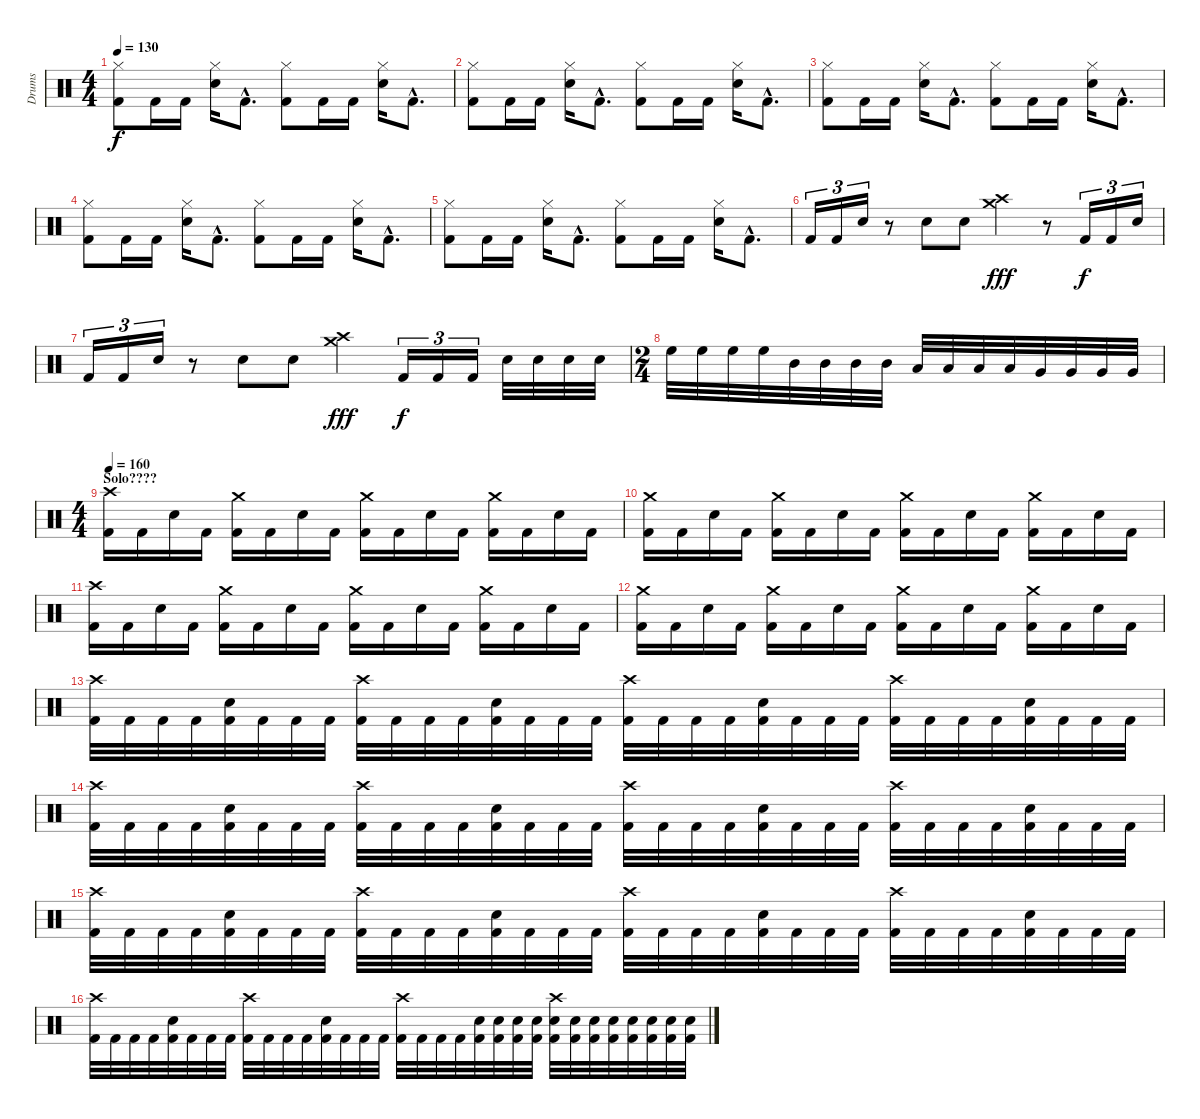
\track ("Drums" "Drums") {instrument percussion}
\staff {score}
\articulation defaults
\ts (4 4)
\tempo 130
\clef neutral
\ks c
("Hi-Hat (closed)" "Kick (hit) 2").8{dy f} "Kick (hit) 2".16 "Kick (hit) 2".16 ("Hi-Hat (closed)" "Electric Snare (hit)").16 "Kick (hit) 2"{hac}.8{d} ("Hi-Hat (closed)" "Kick (hit) 2").8 "Kick (hit) 2".16 "Kick (hit) 2".16 ("Hi-Hat (closed)" "Electric Snare (hit)").16 "Kick (hit) 2"{hac}.8{d} |
("Hi-Hat (closed)" "Kick (hit) 2").8 "Kick (hit) 2".16 "Kick (hit) 2".16 ("Hi-Hat (closed)" "Electric Snare (hit)").16 "Kick (hit) 2"{hac}.8{d} ("Hi-Hat (closed)" "Kick (hit) 2").8 "Kick (hit) 2".16 "Kick (hit) 2".16 ("Hi-Hat (closed)" "Electric Snare (hit)").16 "Kick (hit) 2"{hac}.8{d} |
("Hi-Hat (closed)" "Kick (hit) 2").8 "Kick (hit) 2".16 "Kick (hit) 2".16 ("Hi-Hat (closed)" "Electric Snare (hit)").16 "Kick (hit) 2"{hac}.8{d} ("Hi-Hat (closed)" "Kick (hit) 2").8 "Kick (hit) 2".16 "Kick (hit) 2".16 ("Hi-Hat (closed)" "Electric Snare (hit)").16 "Kick (hit) 2"{hac}.8{d} |
("Hi-Hat (closed)" "Kick (hit) 2").8 "Kick (hit) 2".16 "Kick (hit) 2".16 ("Hi-Hat (closed)" "Electric Snare (hit)").16 "Kick (hit) 2"{hac}.8{d} ("Hi-Hat (closed)" "Kick (hit) 2").8 "Kick (hit) 2".16 "Kick (hit) 2".16 ("Hi-Hat (closed)" "Electric Snare (hit)").16 "Kick (hit) 2"{hac}.8{d} |
("Hi-Hat (closed)" "Kick (hit) 2").8 "Kick (hit) 2".16 "Kick (hit) 2".16 ("Hi-Hat (closed)" "Electric Snare (hit)").16 "Kick (hit) 2"{hac}.8{d} ("Hi-Hat (closed)" "Kick (hit) 2").8 "Kick (hit) 2".16 "Kick (hit) 2".16 ("Hi-Hat (closed)" "Electric Snare (hit)").16 "Kick (hit) 2"{hac}.8{d} |
"Kick (hit) 2".16{tu (3 2)} "Kick (hit) 2".16{tu (3 2)} "Electric Snare (hit)".16{tu (3 2)} r.8 "Electric Snare (hit)".8 "Electric Snare (hit)".8 ("Crash medium (hit)" "Crash high (hit)").4{dy fff} r.8 "Kick (hit) 2".16{tu (3 2) dy f} "Kick (hit) 2".16{tu (3 2)} "Electric Snare (hit)".16{tu (3 2)} |
"Kick (hit) 2".16{tu (3 2)} "Kick (hit) 2".16{tu (3 2)} "Electric Snare (hit)".16{tu (3 2)} r.8 "Electric Snare (hit)".8 "Electric Snare (hit)".8 ("Crash medium (hit)" "Crash high (hit)").4{dy fff} "Kick (hit) 2".16{tu (3 2) dy f} "Kick (hit) 2".16{tu (3 2)} "Kick (hit) 2".16{tu (3 2)} "Electric Snare (hit)".32 "Electric Snare (hit)".32 "Electric Snare (hit)".32 "Electric Snare (hit)".32 |
\ts (2 4)
"High Floor Tom (hit)".32 "High Floor Tom (hit)".32 "High Floor Tom (hit)".32 "High Floor Tom (hit)".32 "Mid Tom (hit)".32 "Mid Tom (hit)".32 "Mid Tom (hit)".32 "Mid Tom (hit)".32 "Low Tom (hit)".32 "Low Tom (hit)".32 "Low Tom (hit)".32 "Low Tom (hit)".32 "Very Low Tom (hit)".32 "Very Low Tom (hit)".32 "Very Low Tom (hit)".32 "Very Low Tom (hit)".32 |
\ts (4 4)
\section ("" "Solo????")
\tempo 160
("Crash high (hit)" "Kick (hit) 2").16 "Kick (hit) 2".16 "Electric Snare (hit)".16 "Kick (hit) 2".16 ("Crash medium (hit)" "Kick (hit) 2").16 "Kick (hit) 2".16 "Electric Snare (hit)".16 "Kick (hit) 2".16 ("Crash medium (hit)" "Kick (hit) 2").16 "Kick (hit) 2".16 "Electric Snare (hit)".16 "Kick (hit) 2".16 ("Crash medium (hit)" "Kick (hit) 2").16 "Kick (hit) 2".16 "Electric Snare (hit)".16 "Kick (hit) 2".16 |
("Crash medium (hit)" "Kick (hit) 2").16 "Kick (hit) 2".16 "Electric Snare (hit)".16 "Kick (hit) 2".16 ("Crash medium (hit)" "Kick (hit) 2").16 "Kick (hit) 2".16 "Electric Snare (hit)".16 "Kick (hit) 2".16 ("Crash medium (hit)" "Kick (hit) 2").16 "Kick (hit) 2".16 "Electric Snare (hit)".16 "Kick (hit) 2".16 ("Crash medium (hit)" "Kick (hit) 2").16 "Kick (hit) 2".16 "Electric Snare (hit)".16 "Kick (hit) 2".16 |
("Crash high (hit)" "Kick (hit) 2").16 "Kick (hit) 2".16 "Electric Snare (hit)".16 "Kick (hit) 2".16 ("Crash medium (hit)" "Kick (hit) 2").16 "Kick (hit) 2".16 "Electric Snare (hit)".16 "Kick (hit) 2".16 ("Crash medium (hit)" "Kick (hit) 2").16 "Kick (hit) 2".16 "Electric Snare (hit)".16 "Kick (hit) 2".16 ("Crash medium (hit)" "Kick (hit) 2").16 "Kick (hit) 2".16 "Electric Snare (hit)".16 "Kick (hit) 2".16 |
("Crash medium (hit)" "Kick (hit) 2").16 "Kick (hit) 2".16 "Electric Snare (hit)".16 "Kick (hit) 2".16 ("Crash medium (hit)" "Kick (hit) 2").16 "Kick (hit) 2".16 "Electric Snare (hit)".16 "Kick (hit) 2".16 ("Crash medium (hit)" "Kick (hit) 2").16 "Kick (hit) 2".16 "Electric Snare (hit)".16 "Kick (hit) 2".16 ("Crash medium (hit)" "Kick (hit) 2").16 "Kick (hit) 2".16 "Electric Snare (hit)".16 "Kick (hit) 2".16 |
("Crash high (hit)" "Kick (hit) 2").32 "Kick (hit) 2".32 "Kick (hit) 2".32 "Kick (hit) 2".32 ("Electric Snare (hit)" "Kick (hit) 2").32 "Kick (hit) 2".32 "Kick (hit) 2".32 "Kick (hit) 2".32 ("Crash high (hit)" "Kick (hit) 2").32 "Kick (hit) 2".32 "Kick (hit) 2".32 "Kick (hit) 2".32 ("Electric Snare (hit)" "Kick (hit) 2").32 "Kick (hit) 2".32 "Kick (hit) 2".32 "Kick (hit) 2".32 ("Crash high (hit)" "Kick (hit) 2").32 "Kick (hit) 2".32 "Kick (hit) 2".32 "Kick (hit) 2".32 ("Electric Snare (hit)" "Kick (hit) 2").32 "Kick (hit) 2".32 "Kick (hit) 2".32 "Kick (hit) 2".32 ("Crash high (hit)" "Kick (hit) 2").32 "Kick (hit) 2".32 "Kick (hit) 2".32 "Kick (hit) 2".32 ("Electric Snare (hit)" "Kick (hit) 2").32 "Kick (hit) 2".32 "Kick (hit) 2".32 "Kick (hit) 2".32 |
("Crash high (hit)" "Kick (hit) 2").32 "Kick (hit) 2".32 "Kick (hit) 2".32 "Kick (hit) 2".32 ("Electric Snare (hit)" "Kick (hit) 2").32 "Kick (hit) 2".32 "Kick (hit) 2".32 "Kick (hit) 2".32 ("Crash high (hit)" "Kick (hit) 2").32 "Kick (hit) 2".32 "Kick (hit) 2".32 "Kick (hit) 2".32 ("Electric Snare (hit)" "Kick (hit) 2").32 "Kick (hit) 2".32 "Kick (hit) 2".32 "Kick (hit) 2".32 ("Crash high (hit)" "Kick (hit) 2").32 "Kick (hit) 2".32 "Kick (hit) 2".32 "Kick (hit) 2".32 ("Electric Snare (hit)" "Kick (hit) 2").32 "Kick (hit) 2".32 "Kick (hit) 2".32 "Kick (hit) 2".32 ("Crash high (hit)" "Kick (hit) 2").32 "Kick (hit) 2".32 "Kick (hit) 2".32 "Kick (hit) 2".32 ("Electric Snare (hit)" "Kick (hit) 2").32 "Kick (hit) 2".32 "Kick (hit) 2".32 "Kick (hit) 2".32 |
("Crash high (hit)" "Kick (hit) 2").32 "Kick (hit) 2".32 "Kick (hit) 2".32 "Kick (hit) 2".32 ("Electric Snare (hit)" "Kick (hit) 2").32 "Kick (hit) 2".32 "Kick (hit) 2".32 "Kick (hit) 2".32 ("Crash high (hit)" "Kick (hit) 2").32 "Kick (hit) 2".32 "Kick (hit) 2".32 "Kick (hit) 2".32 ("Electric Snare (hit)" "Kick (hit) 2").32 "Kick (hit) 2".32 "Kick (hit) 2".32 "Kick (hit) 2".32 ("Crash high (hit)" "Kick (hit) 2").32 "Kick (hit) 2".32 "Kick (hit) 2".32 "Kick (hit) 2".32 ("Electric Snare (hit)" "Kick (hit) 2").32 "Kick (hit) 2".32 "Kick (hit) 2".32 "Kick (hit) 2".32 ("Crash high (hit)" "Kick (hit) 2").32 "Kick (hit) 2".32 "Kick (hit) 2".32 "Kick (hit) 2".32 ("Electric Snare (hit)" "Kick (hit) 2").32 "Kick (hit) 2".32 "Kick (hit) 2".32 "Kick (hit) 2".32 |
("Crash high (hit)" "Kick (hit) 2").32 "Kick (hit) 2".32 "Kick (hit) 2".32 "Kick (hit) 2".32 ("Electric Snare (hit)" "Kick (hit) 2").32 "Kick (hit) 2".32 "Kick (hit) 2".32 "Kick (hit) 2".32 ("Crash high (hit)" "Kick (hit) 2").32 "Kick (hit) 2".32 "Kick (hit) 2".32 "Kick (hit) 2".32 ("Electric Snare (hit)" "Kick (hit) 2").32 "Kick (hit) 2".32 "Kick (hit) 2".32 "Kick (hit) 2".32 ("Crash high (hit)" "Kick (hit) 2").32 "Kick (hit) 2".32 "Kick (hit) 2".32 "Kick (hit) 2".32 ("Electric Snare (hit)" "Kick (hit) 2").32 ("Electric Snare (hit)" "Kick (hit) 2").32 ("Electric Snare (hit)" "Kick (hit) 2").32 ("Electric Snare (hit)" "Kick (hit) 2").32 ("Crash high (hit)" "Electric Snare (hit)" "Kick (hit) 2").32 ("Electric Snare (hit)" "Kick (hit) 2").32 ("Electric Snare (hit)" "Kick (hit) 2").32 ("Electric Snare (hit)" "Kick (hit) 2").32 ("Electric Snare (hit)" "Kick (hit) 2").32 ("Electric Snare (hit)" "Kick (hit) 2").32 ("Electric Snare (hit)" "Kick (hit) 2").32 ("Electric Snare (hit)" "Kick (hit) 2").32
